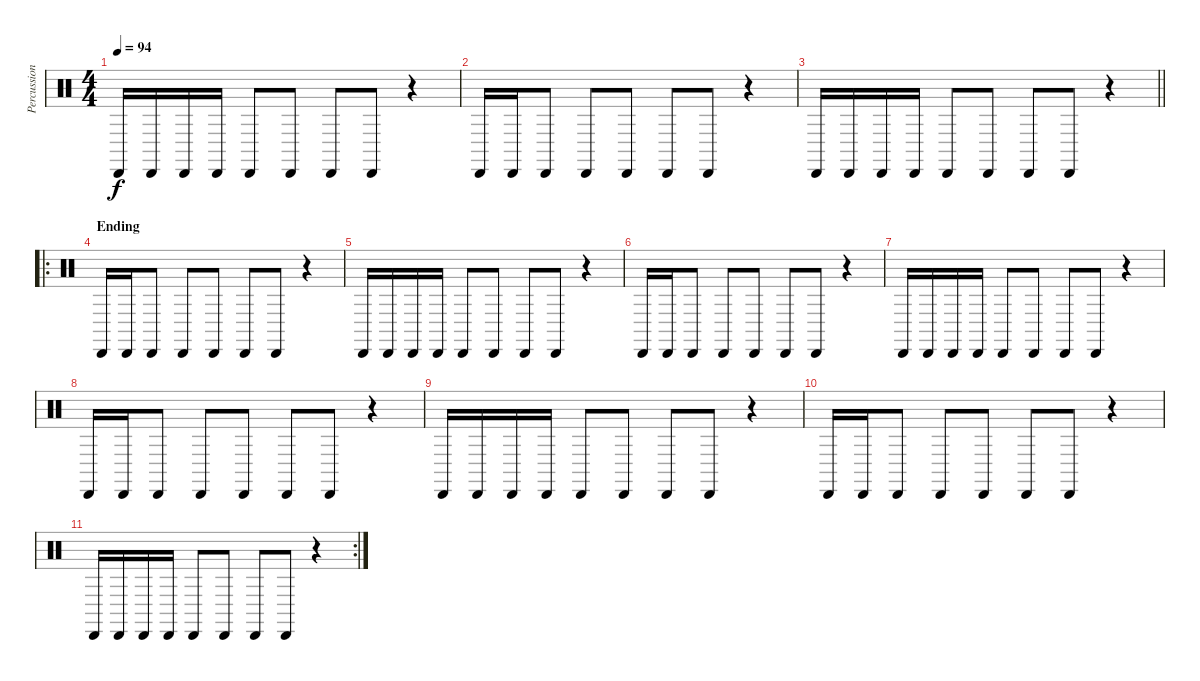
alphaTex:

\track ("Percussion" "Percussion") {instrument percussion}
\staff {score}
\articulation defaults
\ts (4 4)
\tempo 94
\clef neutral
\ks aminor "Cabasa (hit)".16{dy f} "Cabasa (hit)".16 "Cabasa (hit)".16 "Cabasa (hit)".16 "Cabasa (hit)".8 "Cabasa (hit)".8 "Cabasa (hit)".8 "Cabasa (hit)".8
r.4 |
"Cabasa (hit)".16 "Cabasa (hit)".16 "Cabasa (hit)".8 "Cabasa (hit)".8 "Cabasa (hit)".8 "Cabasa (hit)".8 "Cabasa (hit)".8 r.4 |
\barLineRight lightlight "Cabasa (hit)".16 "Cabasa (hit)".16 "Cabasa (hit)".16 "Cabasa (hit)".16 "Cabasa (hit)".8 "Cabasa (hit)".8 "Cabasa (hit)".8 "Cabasa (hit)".8
r.4 |
\ro
\section ("" "Ending")
"Cabasa (hit)".16 "Cabasa (hit)".16 "Cabasa (hit)".8 "Cabasa (hit)".8 "Cabasa (hit)".8 "Cabasa (hit)".8 "Cabasa (hit)".8 r.4 |
"Cabasa (hit)".16 "Cabasa (hit)".16 "Cabasa (hit)".16 "Cabasa (hit)".16 "Cabasa (hit)".8 "Cabasa (hit)".8 "Cabasa (hit)".8 "Cabasa (hit)".8 r.4 |
"Cabasa (hit)".16 "Cabasa (hit)".16 "Cabasa (hit)".8 "Cabasa (hit)".8 "Cabasa (hit)".8 "Cabasa (hit)".8 "Cabasa (hit)".8 r.4 |
"Cabasa (hit)".16 "Cabasa (hit)".16 "Cabasa (hit)".16 "Cabasa (hit)".16 "Cabasa (hit)".8 "Cabasa (hit)".8 "Cabasa (hit)".8 "Cabasa (hit)".8 r.4 |
"Cabasa (hit)".16 "Cabasa (hit)".16 "Cabasa (hit)".8 "Cabasa (hit)".8 "Cabasa (hit)".8 "Cabasa (hit)".8 "Cabasa (hit)".8 r.4 |
"Cabasa (hit)".16 "Cabasa (hit)".16 "Cabasa (hit)".16 "Cabasa (hit)".16 "Cabasa (hit)".8 "Cabasa (hit)".8 "Cabasa (hit)".8 "Cabasa (hit)".8 r.4 |
"Cabasa (hit)".16 "Cabasa (hit)".16 "Cabasa (hit)".8 "Cabasa (hit)".8 "Cabasa (hit)".8 "Cabasa (hit)".8 "Cabasa (hit)".8 r.4 |
\rc 2 "Cabasa (hit)".16 "Cabasa (hit)".16 "Cabasa (hit)".16 "Cabasa (hit)".16 "Cabasa (hit)".8 "Cabasa (hit)".8 "Cabasa (hit)".8 "Cabasa (hit)".8
r.4
